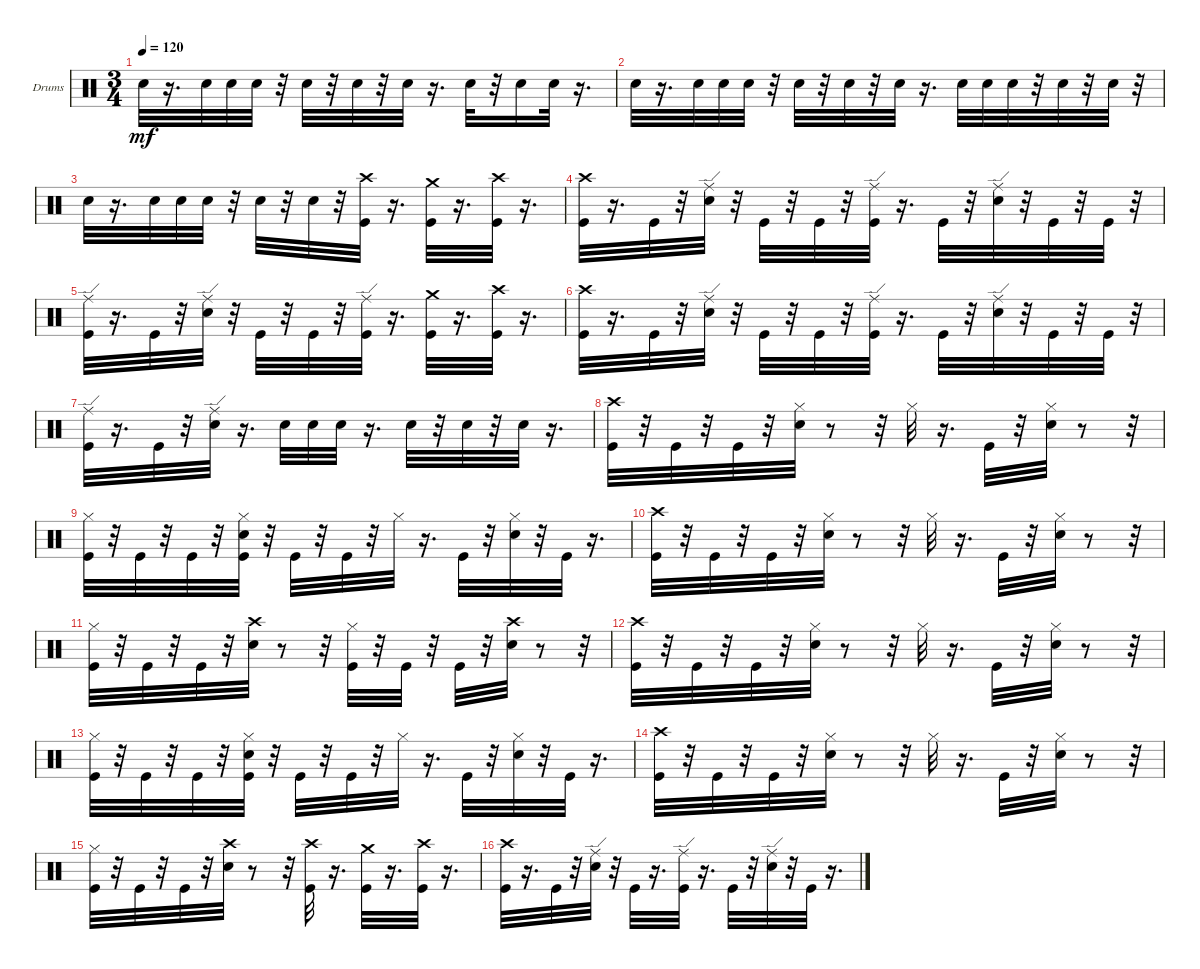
\bracketExtendMode groupsimilarinstruments
\firstSystemTrackNameOrientation horizontal
\otherSystemsTrackNameOrientation horizontal
\track ("" "Drums") {instrument percussion}
\staff {score}
\articulation defaults
\ts (3 4)
\tempo 120
\clef neutral
\ks c "Snare (hit) 2".32{dy mf}
r.16{d} "Snare (hit) 2".32 "Snare (hit) 2".32 "Snare (hit) 2".32 r.32 "Snare (hit) 2".32 r.32 "Snare (hit) 2".32 r.32 "Snare (hit) 2".32 r.16{d} "Snare (hit) 2".32 r.32 "Snare (hit) 2".16 "Snare (hit) 2".32 r.16{d} |
"Snare (hit) 2".32 r.16{d} "Snare (hit) 2".32 "Snare (hit) 2".32 "Snare (hit) 2".32 r.32 "Snare (hit) 2".32 r.32 "Snare (hit) 2".32 r.32 "Snare (hit) 2".32 r.16{d} "Snare (hit) 2".32 "Snare (hit) 2".32 "Snare (hit) 2".32 r.32 "Snare (hit) 2".32 r.32 "Snare (hit) 2".32 r.32 |
"Snare (hit) 2".32 r.16{d} "Snare (hit) 2".32 "Snare (hit) 2".32 "Snare (hit) 2".32 r.32 "Snare (hit) 2".32 r.32 "Snare (hit) 2".32 r.32 ("Crash high (hit)" "Kick (hit)").32 r.16{d} ("Crash medium (hit)" "Kick (hit)").32 r.16{d} ("Crash high (hit)" "Kick (hit)").32 r.16{d} |
("Crash high (hit)" "Kick (hit)").32 r.16{d} "Kick (hit)".32 r.32 ("Ride (edge)" "Snare (hit) 2").32 r.32 "Kick (hit)".32 r.32 "Kick (hit)".32 r.32 ("Ride (edge)" "Kick (hit)").32 r.16{d} "Kick (hit)".32 r.32 ("Ride (edge)" "Snare (hit) 2").32 r.32 "Kick (hit)".32 r.32 "Kick (hit)".32 r.32 |
("Ride (edge)" "Kick (hit)").32 r.16{d} "Kick (hit)".32 r.32 ("Ride (edge)" "Snare (hit) 2").32 r.32 "Kick (hit)".32 r.32 "Kick (hit)".32 r.32 ("Ride (edge)" "Kick (hit)").32 r.16{d} ("Crash medium (hit)" "Kick (hit)").32 r.16{d} ("Crash high (hit)" "Kick (hit)").32 r.16{d} |
("Crash high (hit)" "Kick (hit)").32 r.16{d} "Kick (hit)".32 r.32 ("Ride (edge)" "Snare (hit) 2").32 r.32 "Kick (hit)".32 r.32 "Kick (hit)".32 r.32 ("Ride (edge)" "Kick (hit)").32 r.16{d} "Kick (hit)".32 r.32 ("Ride (edge)" "Snare (hit) 2").32 r.32 "Kick (hit)".32 r.32 "Kick (hit)".32 r.32 |
("Ride (edge)" "Kick (hit)").32 r.16{d} "Kick (hit)".32 r.32 ("Ride (edge)" "Snare (hit) 2").32 r.16{d} "Snare (hit) 2".32 "Snare (hit) 2".32 "Snare (hit) 2".32 r.16{d} "Snare (hit) 2".32 r.32 "Snare (hit) 2".32 r.32 "Snare (hit) 2".32 r.16{d} |
("Crash high (hit)" "Kick (hit)").32 r.32 "Kick (hit)".32 r.32 "Kick (hit)".32 r.32 ("Hi-Hat (closed)" "Snare (hit) 2").32 r.8 r.32 "Hi-Hat (closed)".32 r.16{d} "Kick (hit)".32 r.32 ("Hi-Hat (closed)" "Snare (hit) 2").32 r.8 r.32 |
("Kick (hit)" "Hi-Hat (closed)").32 r.32 "Kick (hit)".32 r.32 "Kick (hit)".32 r.32 ("Kick (hit)" "Snare (hit) 2" "Hi-Hat (closed)").32 r.32 "Kick (hit)".32 r.32 "Kick (hit)".32 r.32 "Hi-Hat (closed)".32 r.16{d} "Kick (hit)".32 r.32 ("Snare (hit) 2" "Hi-Hat (closed)").32 r.32 "Kick (hit)".32 r.16{d} |
("Crash high (hit)" "Kick (hit)").32 r.32 "Kick (hit)".32 r.32 "Kick (hit)".32 r.32 ("Hi-Hat (closed)" "Snare (hit) 2").32 r.8 r.32 "Hi-Hat (closed)".32 r.16{d} "Kick (hit)".32 r.32 ("Hi-Hat (closed)" "Snare (hit) 2").32 r.8 r.32 |
("Kick (hit)" "Hi-Hat (closed)").32 r.32 "Kick (hit)".32 r.32 "Kick (hit)".32 r.32 ("Crash high (hit)" "Snare (hit) 2").32 r.8 r.32 ("Kick (hit)" "Hi-Hat (closed)").32 r.32 "Kick (hit)".32 r.32 "Kick (hit)".32 r.32 ("Crash high (hit)" "Snare (hit) 2").32 r.8 r.32 |
("Crash high (hit)" "Kick (hit)").32 r.32 "Kick (hit)".32 r.32 "Kick (hit)".32 r.32 ("Hi-Hat (closed)" "Snare (hit) 2").32 r.8 r.32 "Hi-Hat (closed)".32 r.16{d} "Kick (hit)".32 r.32 ("Hi-Hat (closed)" "Snare (hit) 2").32 r.8 r.32 |
("Kick (hit)" "Hi-Hat (closed)").32 r.32 "Kick (hit)".32 r.32 "Kick (hit)".32 r.32 ("Kick (hit)" "Snare (hit) 2" "Hi-Hat (closed)").32 r.32 "Kick (hit)".32 r.32 "Kick (hit)".32 r.32 "Hi-Hat (closed)".32 r.16{d} "Kick (hit)".32 r.32 ("Snare (hit) 2" "Hi-Hat (closed)").32 r.32 "Kick (hit)".32 r.16{d} |
("Crash high (hit)" "Kick (hit)").32 r.32 "Kick (hit)".32 r.32 "Kick (hit)".32 r.32 ("Hi-Hat (closed)" "Snare (hit) 2").32 r.8 r.32 "Hi-Hat (closed)".32 r.16{d} "Kick (hit)".32 r.32 ("Hi-Hat (closed)" "Snare (hit) 2").32 r.8 r.32 |
("Kick (hit)" "Hi-Hat (closed)").32 r.32 "Kick (hit)".32 r.32 "Kick (hit)".32 r.32 ("Crash high (hit)" "Snare (hit) 2").32 r.8 r.32 ("Crash high (hit)" "Kick (hit)").32 r.16{d} ("Crash medium (hit)" "Kick (hit)").32 r.16{d} ("Crash high (hit)" "Kick (hit)").32 r.16{d} |
("Crash high (hit)" "Kick (hit)").32 r.16{d} "Kick (hit)".32 r.32 ("Snare (hit) 2" "Ride (edge)").32 r.32 "Kick (hit)".32 r.16{d} ("Kick (hit)" "Ride (edge)").32 r.16{d} "Kick (hit)".32 r.32 ("Snare (hit) 2" "Ride (edge)").32 r.32 "Kick (hit)".32 r.16{d}
